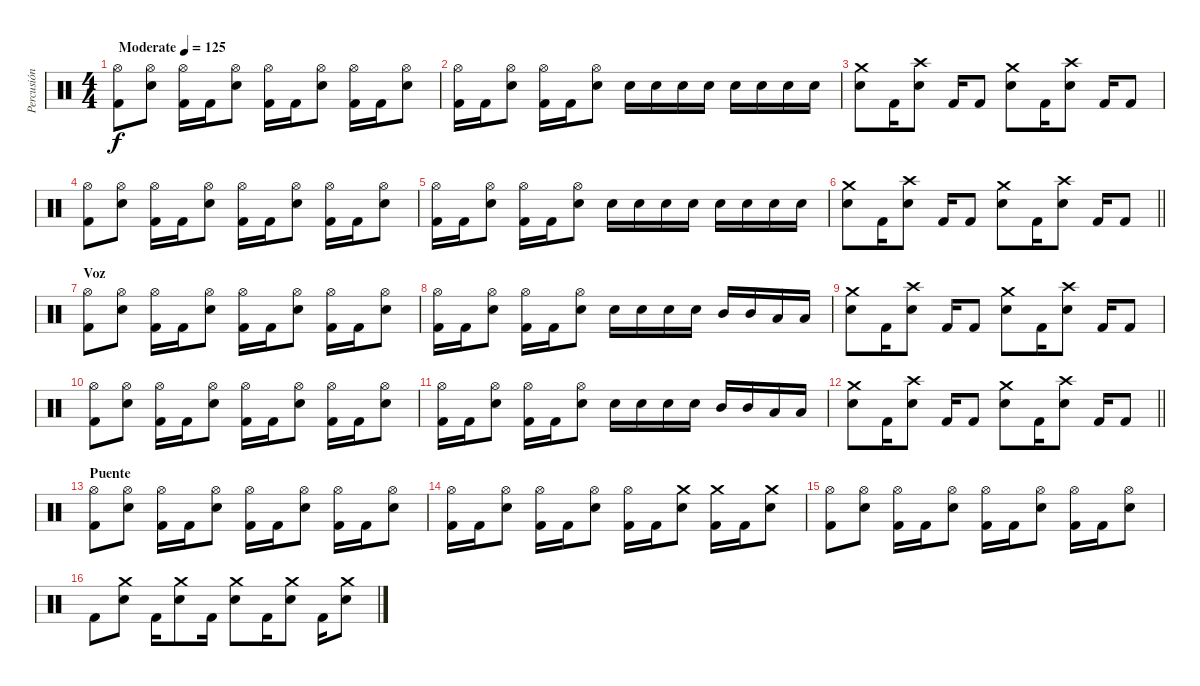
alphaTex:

\track ("Percusión" "Percusión") {instrument percussion}
\staff {score}
\articulation defaults
\ts (4 4)
\tempo (125 "Moderate")
\clef neutral
\ks c
("Hi-Hat (open)" "Kick (hit) 2").8{dy f} ("Hi-Hat (open)" "Snare (hit) 2").8 ("Hi-Hat (open)" "Kick (hit) 2").16 "Kick (hit) 2".16 ("Hi-Hat (open)" "Snare (hit) 2").8 ("Hi-Hat (open)" "Kick (hit) 2").16 "Kick (hit) 2".16 ("Hi-Hat (open)" "Snare (hit) 2").8 ("Hi-Hat (open)" "Kick (hit) 2").16 "Kick (hit) 2".16 ("Hi-Hat (open)" "Snare (hit) 2").8 |
("Hi-Hat (open)" "Kick (hit) 2").16 "Kick (hit) 2".16 ("Hi-Hat (open)" "Snare (hit) 2").8 ("Hi-Hat (open)" "Kick (hit) 2").16 "Kick (hit) 2".16 ("Hi-Hat (open)" "Snare (hit) 2").8 "Snare (hit) 2".16 "Snare (hit) 2".16 "Snare (hit) 2".16 "Snare (hit) 2".16 "Snare (hit) 2".16 "Snare (hit) 2".16 "Snare (hit) 2".16 "Snare (hit) 2".16 |
("Crash medium (hit)" "Snare (hit) 2").8 "Kick (hit) 2".16 ("Crash high (hit)" "Snare (hit) 2").8 "Kick (hit) 2".16 "Kick (hit) 2".8 ("Crash medium (hit)" "Snare (hit) 2").8 "Kick (hit) 2".16 ("Crash high (hit)" "Snare (hit) 2").8 "Kick (hit) 2".16 "Kick (hit) 2".8 |
("Hi-Hat (open)" "Kick (hit) 2").8 ("Hi-Hat (open)" "Snare (hit) 2").8 ("Hi-Hat (open)" "Kick (hit) 2").16 "Kick (hit) 2".16 ("Hi-Hat (open)" "Snare (hit) 2").8 ("Hi-Hat (open)" "Kick (hit) 2").16 "Kick (hit) 2".16 ("Hi-Hat (open)" "Snare (hit) 2").8 ("Hi-Hat (open)" "Kick (hit) 2").16 "Kick (hit) 2".16 ("Hi-Hat (open)" "Snare (hit) 2").8 |
("Hi-Hat (open)" "Kick (hit) 2").16 "Kick (hit) 2".16 ("Hi-Hat (open)" "Snare (hit) 2").8 ("Hi-Hat (open)" "Kick (hit) 2").16 "Kick (hit) 2".16 ("Hi-Hat (open)" "Snare (hit) 2").8 "Snare (hit) 2".16 "Snare (hit) 2".16 "Snare (hit) 2".16 "Snare (hit) 2".16 "Snare (hit) 2".16 "Snare (hit) 2".16 "Snare (hit) 2".16 "Snare (hit) 2".16 |
\barLineRight lightlight
("Crash medium (hit)" "Snare (hit) 2").8 "Kick (hit) 2".16 ("Crash high (hit)" "Snare (hit) 2").8 "Kick (hit) 2".16 "Kick (hit) 2".8 ("Crash medium (hit)" "Snare (hit) 2").8 "Kick (hit) 2".16 ("Crash high (hit)" "Snare (hit) 2").8 "Kick (hit) 2".16 "Kick (hit) 2".8 |
\section ("" "Voz")
("Hi-Hat (open)" "Kick (hit) 2").8 ("Hi-Hat (open)" "Snare (hit) 2").8 ("Hi-Hat (open)" "Kick (hit) 2").16 "Kick (hit) 2".16 ("Hi-Hat (open)" "Snare (hit) 2").8 ("Hi-Hat (open)" "Kick (hit) 2").16 "Kick (hit) 2".16 ("Hi-Hat (open)" "Snare (hit) 2").8 ("Hi-Hat (open)" "Kick (hit) 2").16 "Kick (hit) 2".16 ("Hi-Hat (open)" "Snare (hit) 2").8 |
("Hi-Hat (open)" "Kick (hit) 2").16 "Kick (hit) 2".16 ("Hi-Hat (open)" "Snare (hit) 2").8 ("Hi-Hat (open)" "Kick (hit) 2").16 "Kick (hit) 2".16 ("Hi-Hat (open)" "Snare (hit) 2").8 "Snare (hit) 2".16 "Snare (hit) 2".16 "Snare (hit) 2".16 "Snare (hit) 2".16 "Mid Tom (hit)".16 "Mid Tom (hit)".16 "Low Tom (hit)".16 "Low Tom (hit)".16 |
("Crash medium (hit)" "Snare (hit) 2").8 "Kick (hit) 2".16 ("Crash high (hit)" "Snare (hit) 2").8 "Kick (hit) 2".16 "Kick (hit) 2".8 ("Crash medium (hit)" "Snare (hit) 2").8 "Kick (hit) 2".16 ("Crash high (hit)" "Snare (hit) 2").8 "Kick (hit) 2".16 "Kick (hit) 2".8 |
("Hi-Hat (open)" "Kick (hit) 2").8 ("Hi-Hat (open)" "Snare (hit) 2").8 ("Hi-Hat (open)" "Kick (hit) 2").16 "Kick (hit) 2".16 ("Hi-Hat (open)" "Snare (hit) 2").8 ("Hi-Hat (open)" "Kick (hit) 2").16 "Kick (hit) 2".16 ("Hi-Hat (open)" "Snare (hit) 2").8 ("Hi-Hat (open)" "Kick (hit) 2").16 "Kick (hit) 2".16 ("Hi-Hat (open)" "Snare (hit) 2").8 |
("Hi-Hat (open)" "Kick (hit) 2").16 "Kick (hit) 2".16 ("Hi-Hat (open)" "Snare (hit) 2").8 ("Hi-Hat (open)" "Kick (hit) 2").16 "Kick (hit) 2".16 ("Hi-Hat (open)" "Snare (hit) 2").8 "Snare (hit) 2".16 "Snare (hit) 2".16 "Snare (hit) 2".16 "Snare (hit) 2".16 "Mid Tom (hit)".16 "Mid Tom (hit)".16 "Low Tom (hit)".16 "Low Tom (hit)".16 |
\barLineRight lightlight
("Crash medium (hit)" "Snare (hit) 2").8 "Kick (hit) 2".16 ("Crash high (hit)" "Snare (hit) 2").8 "Kick (hit) 2".16 "Kick (hit) 2".8 ("Crash medium (hit)" "Snare (hit) 2").8 "Kick (hit) 2".16 ("Crash high (hit)" "Snare (hit) 2").8 "Kick (hit) 2".16 "Kick (hit) 2".8 |
\section ("" "Puente")
("Hi-Hat (open)" "Kick (hit) 2").8 ("Hi-Hat (open)" "Snare (hit) 2").8 ("Hi-Hat (open)" "Kick (hit) 2").16 "Kick (hit) 2".16 ("Hi-Hat (open)" "Snare (hit) 2").8 ("Hi-Hat (open)" "Kick (hit) 2").16 "Kick (hit) 2".16 ("Hi-Hat (open)" "Snare (hit) 2").8 ("Hi-Hat (open)" "Kick (hit) 2").16 "Kick (hit) 2".16 ("Hi-Hat (open)" "Snare (hit) 2").8 |
("Hi-Hat (open)" "Kick (hit) 2").16 "Kick (hit) 2".16 ("Hi-Hat (open)" "Snare (hit) 2").8 ("Hi-Hat (open)" "Kick (hit) 2").16 "Kick (hit) 2".16 ("Hi-Hat (open)" "Snare (hit) 2").8 ("Hi-Hat (open)" "Kick (hit) 2").16 "Kick (hit) 2".16 ("Crash medium (hit)" "Snare (hit) 2").8 ("Crash medium (hit)" "Kick (hit) 2").16 "Kick (hit) 2".16 ("Crash medium (hit)" "Snare (hit) 2").8 |
("Hi-Hat (open)" "Kick (hit) 2").8 ("Hi-Hat (open)" "Snare (hit) 2").8 ("Hi-Hat (open)" "Kick (hit) 2").16 "Kick (hit) 2".16 ("Hi-Hat (open)" "Snare (hit) 2").8 ("Hi-Hat (open)" "Kick (hit) 2").16 "Kick (hit) 2".16 ("Hi-Hat (open)" "Snare (hit) 2").8 ("Hi-Hat (open)" "Kick (hit) 2").16 "Kick (hit) 2".16 ("Hi-Hat (open)" "Snare (hit) 2").8 |
"Kick (hit) 2".8 ("Crash medium (hit)" "Snare (hit) 2").8 "Kick (hit) 2".16 ("Crash medium (hit)" "Snare (hit) 2").8 "Kick (hit) 2".16 ("Crash medium (hit)" "Snare (hit) 2").8 "Kick (hit) 2".16 ("Crash medium (hit)" "Snare (hit) 2").8 "Kick (hit) 2".16 ("Crash medium (hit)" "Snare (hit) 2").8
